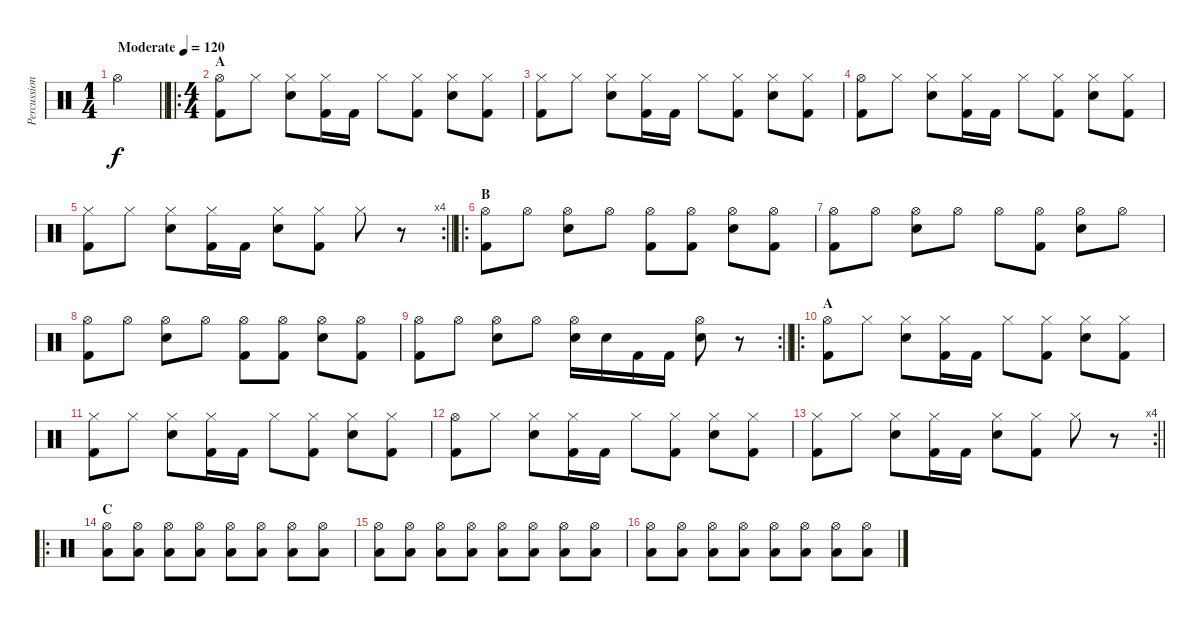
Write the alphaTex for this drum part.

\track ("Percussions" "Percussion") {instrument percussion}
\staff
\articulation defaults
\ts (1 4)
\tempo (120 "Moderate")
\clef neutral
\barLineRight lightlight
\ks c "Hi-Hat (open)".4{dy f}
|
\ro
\ts (4 4)
\section ("" "A")
("Hi-Hat (open)" "Kick (hit) 2").8 "Hi-Hat (closed)".8 ("Hi-Hat (closed)" "Snare (hit) 2").8 ("Hi-Hat (closed)" "Kick (hit) 2").16 "Kick (hit) 2".16 "Hi-Hat (closed)".8 ("Hi-Hat (closed)" "Kick (hit) 2").8 ("Hi-Hat (closed)" "Snare (hit) 2").8 ("Hi-Hat (closed)" "Kick (hit) 2").8 |
("Hi-Hat (closed)" "Kick (hit) 2").8 "Hi-Hat (closed)".8 ("Hi-Hat (closed)" "Snare (hit) 2").8 ("Hi-Hat (closed)" "Kick (hit) 2").16 "Kick (hit) 2".16 "Hi-Hat (closed)".8 ("Hi-Hat (closed)" "Kick (hit) 2").8 ("Hi-Hat (closed)" "Snare (hit) 2").8 ("Hi-Hat (closed)" "Kick (hit) 2").8 |
("Hi-Hat (open)" "Kick (hit) 2").8 "Hi-Hat (closed)".8 ("Hi-Hat (closed)" "Snare (hit) 2").8 ("Hi-Hat (closed)" "Kick (hit) 2").16 "Kick (hit) 2".16 "Hi-Hat (closed)".8 ("Hi-Hat (closed)" "Kick (hit) 2").8 ("Hi-Hat (closed)" "Snare (hit) 2").8 ("Hi-Hat (closed)" "Kick (hit) 2").8 |
\rc 4
\barLineRight lightlight
("Hi-Hat (closed)" "Kick (hit) 2").8 "Hi-Hat (closed)".8 ("Hi-Hat (closed)" "Snare (hit) 2").8 ("Hi-Hat (closed)" "Kick (hit) 2").16 "Kick (hit) 2".16 ("Hi-Hat (closed)" "Snare (hit) 2").8 ("Hi-Hat (closed)" "Kick (hit) 2").8 "Hi-Hat (closed)".8 r.8 |
\ro
\section ("" "B")
("Hi-Hat (open)" "Kick (hit) 2").8 "Hi-Hat (open)".8 ("Hi-Hat (open)" "Snare (hit) 2").8 "Hi-Hat (open)".8 ("Hi-Hat (open)" "Kick (hit) 2").8 ("Hi-Hat (open)" "Kick (hit) 2").8 ("Hi-Hat (open)" "Snare (hit) 2").8 ("Hi-Hat (open)" "Kick (hit) 2").8 |
("Hi-Hat (open)" "Kick (hit) 2").8 "Hi-Hat (open)".8 ("Hi-Hat (open)" "Snare (hit) 2").8 "Hi-Hat (open)".8 "Hi-Hat (open)".8 ("Hi-Hat (open)" "Kick (hit) 2").8 ("Hi-Hat (open)" "Snare (hit) 2").8 "Hi-Hat (open)".8 |
("Hi-Hat (open)" "Kick (hit) 2").8 "Hi-Hat (open)".8 ("Hi-Hat (open)" "Snare (hit) 2").8 "Hi-Hat (open)".8 ("Hi-Hat (open)" "Kick (hit) 2").8 ("Hi-Hat (open)" "Kick (hit) 2").8 ("Hi-Hat (open)" "Snare (hit) 2").8 ("Hi-Hat (open)" "Kick (hit) 2").8 |
\rc 2
\barLineRight lightlight
("Hi-Hat (open)" "Kick (hit) 2").8 "Hi-Hat (open)".8 ("Hi-Hat (open)" "Snare (hit) 2").8 "Hi-Hat (open)".8 ("Hi-Hat (open)" "Snare (hit) 2").16 "Snare (hit) 2".16 "Kick (hit) 2".16 "Kick (hit) 2".16 ("Hi-Hat (open)" "Snare (hit) 2").8 r.8 |
\ro
\section ("" "A")
("Hi-Hat (open)" "Kick (hit) 2").8 "Hi-Hat (closed)".8 ("Hi-Hat (closed)" "Snare (hit) 2").8 ("Hi-Hat (closed)" "Kick (hit) 2").16 "Kick (hit) 2".16 "Hi-Hat (closed)".8 ("Hi-Hat (closed)" "Kick (hit) 2").8 ("Hi-Hat (closed)" "Snare (hit) 2").8 ("Hi-Hat (closed)" "Kick (hit) 2").8 |
("Hi-Hat (closed)" "Kick (hit) 2").8 "Hi-Hat (closed)".8 ("Hi-Hat (closed)" "Snare (hit) 2").8 ("Hi-Hat (closed)" "Kick (hit) 2").16 "Kick (hit) 2".16 "Hi-Hat (closed)".8 ("Hi-Hat (closed)" "Kick (hit) 2").8 ("Hi-Hat (closed)" "Snare (hit) 2").8 ("Hi-Hat (closed)" "Kick (hit) 2").8 |
("Hi-Hat (open)" "Kick (hit) 2").8 "Hi-Hat (closed)".8 ("Hi-Hat (closed)" "Snare (hit) 2").8 ("Hi-Hat (closed)" "Kick (hit) 2").16 "Kick (hit) 2".16 "Hi-Hat (closed)".8 ("Hi-Hat (closed)" "Kick (hit) 2").8 ("Hi-Hat (closed)" "Snare (hit) 2").8 ("Hi-Hat (closed)" "Kick (hit) 2").8 |
\rc 4
\barLineRight lightlight
("Hi-Hat (closed)" "Kick (hit) 2").8 "Hi-Hat (closed)".8 ("Hi-Hat (closed)" "Snare (hit) 2").8 ("Hi-Hat (closed)" "Kick (hit) 2").16 "Kick (hit) 2".16 ("Hi-Hat (closed)" "Snare (hit) 2").8 ("Hi-Hat (closed)" "Kick (hit) 2").8 "Hi-Hat (closed)".8 r.8 |
\ro
\section ("" "C")
("Hi-Hat (open)" "Low Tom (hit)").8 ("Hi-Hat (open)" "Low Tom (hit)").8 ("Hi-Hat (open)" "Low Tom (hit)").8 ("Hi-Hat (open)" "Low Tom (hit)").8 ("Hi-Hat (open)" "Low Tom (hit)").8 ("Hi-Hat (open)" "Low Tom (hit)").8 ("Hi-Hat (open)" "Low Tom (hit)").8 ("Hi-Hat (open)" "Low Tom (hit)").8 |
("Hi-Hat (open)" "Low Tom (hit)").8 ("Hi-Hat (open)" "Low Tom (hit)").8 ("Hi-Hat (open)" "Low Tom (hit)").8 ("Hi-Hat (open)" "Low Tom (hit)").8 ("Hi-Hat (open)" "Low Tom (hit)").8 ("Hi-Hat (open)" "Low Tom (hit)").8 ("Hi-Hat (open)" "Low Tom (hit)").8 ("Hi-Hat (open)" "Low Tom (hit)").8 |
("Hi-Hat (open)" "Low Tom (hit)").8 ("Hi-Hat (open)" "Low Tom (hit)").8 ("Hi-Hat (open)" "Low Tom (hit)").8 ("Hi-Hat (open)" "Low Tom (hit)").8 ("Hi-Hat (open)" "Low Tom (hit)").8 ("Hi-Hat (open)" "Low Tom (hit)").8 ("Hi-Hat (open)" "Low Tom (hit)").8 ("Hi-Hat (open)" "Low Tom (hit)").8
